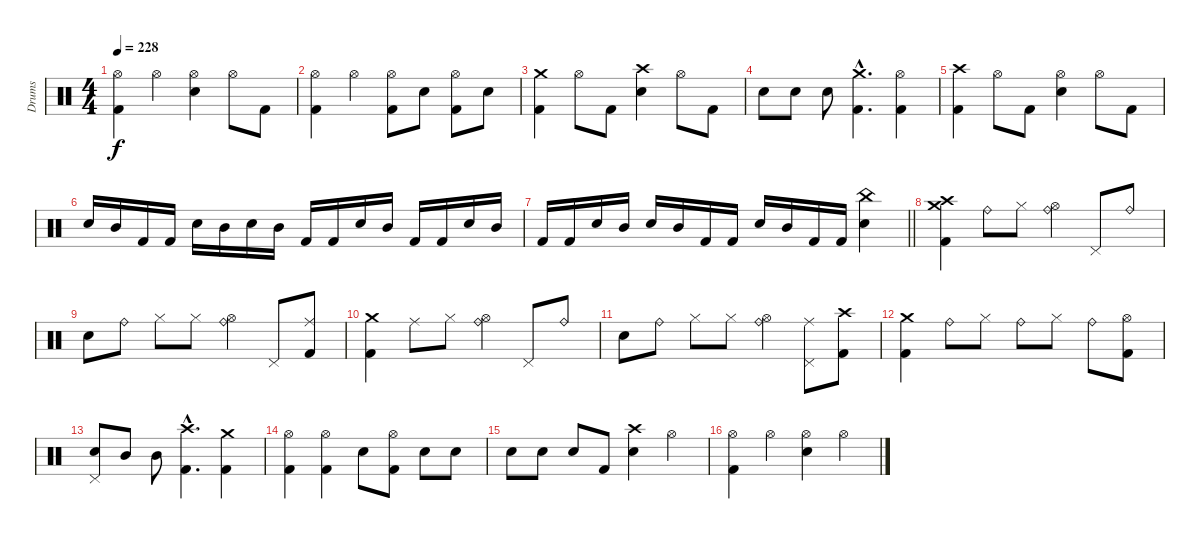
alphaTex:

\track ("Drums" "Drums") {instrument percussion}
\staff {score}
\articulation defaults
\ts (4 4)
\tempo 228
\clef neutral
\ks c
("Hi-Hat (open)" "Kick (hit) 2").4{dy f} "Hi-Hat (open)".4 ("Hi-Hat (open)" "Electric Snare (hit)").4 "Hi-Hat (open)".8 "Kick (hit) 2".8 |
("Hi-Hat (open)" "Kick (hit) 2").4 "Hi-Hat (open)".4 ("Hi-Hat (open)" "Kick (hit) 2").8 "Electric Snare (hit)".8 ("Hi-Hat (open)" "Kick (hit) 2").8 "Electric Snare (hit)".8 |
("Crash medium (hit)" "Kick (hit) 2").4 "Hi-Hat (open)".8 "Kick (hit) 2".8 ("Crash high (hit)" "Electric Snare (hit)").4 "Hi-Hat (open)".8 "Kick (hit) 2".8 |
"Electric Snare (hit)".8 "Electric Snare (hit)".8 "Electric Snare (hit)".8 ("Crash medium (hit)"{hac} "Kick (hit) 2"{hac}).4{d} ("Hi-Hat (open)" "Kick (hit) 2").4 |
("Crash high (hit)" "Kick (hit) 2").4 "Hi-Hat (open)".8 "Kick (hit) 2".8 ("Hi-Hat (open)" "Electric Snare (hit)").4 "Hi-Hat (open)".8 "Kick (hit) 2".8 |
"Electric Snare (hit)".16 "Mid Tom (hit)".16 "Kick (hit) 2".16 "Kick (hit) 2".16 "Electric Snare (hit)".16 "Mid Tom (hit)".16 "Electric Snare (hit)".16 "Mid Tom (hit)".16 "Kick (hit) 2".16 "Kick (hit) 2".16 "Electric Snare (hit)".16 "Mid Tom (hit)".16 "Kick (hit) 2".16 "Kick (hit) 2".16 "Electric Snare (hit)".16 "Mid Tom (hit)".16 |
\barLineRight lightlight "Kick (hit) 2".16 "Kick (hit) 2".16 "Electric Snare (hit)".16 "Mid Tom (hit)".16 "Electric Snare (hit)".16 "Mid Tom (hit)".16 "Kick (hit) 2".16 "Kick (hit) 2".16 "Electric Snare (hit)".16 "Mid Tom (hit)".16 "Kick (hit) 2".16 "Kick (hit) 2".16
("China (hit)" "Electric Snare (hit)").4 |
("Crash medium (hit)" "Crash high (hit)" "Kick (hit) 2").4 "Ride (bell)".8 "Hi-Hat (closed)".8 ("Ride (bell)" "Hi-Hat (open)").4 "Pedal Hi-Hat (hit)".8 "Ride (bell)".8 |
"Electric Snare (hit)".8 "Ride (bell)".8 "Hi-Hat (closed)".8 "Hi-Hat (closed)".8 ("Ride (bell)" "Hi-Hat (open)").4 "Pedal Hi-Hat (hit)".8 ("Ride (middle)" "Kick (hit) 2").8 |
("Crash medium (hit)" "Kick (hit) 2").4 "Ride (middle)".8 "Hi-Hat (closed)".8 ("Ride (bell)" "Hi-Hat (open)").4 "Pedal Hi-Hat (hit)".8 "Ride (bell)".8 |
"Electric Snare (hit)".8 "Ride (bell)".8 "Hi-Hat (closed)".8 "Hi-Hat (closed)".8 ("Ride (bell)" "Hi-Hat (open)").4 ("Ride (middle)" "Pedal Hi-Hat (hit)").8 ("Crash high (hit)" "Kick (hit) 2").8 |
("Crash medium (hit)" "Kick (hit) 2").4 "Ride (bell)".8 "Hi-Hat (closed)".8 "Ride (bell)".8 "Hi-Hat (closed)".8 "Ride (bell)".8 ("Hi-Hat (open)" "Kick (hit) 2").8 |
("Pedal Hi-Hat (hit)" "Electric Snare (hit)").8 "Mid Tom (hit)".8 "Mid Tom (hit)".8 ("Crash high (hit)"{hac} "Kick (hit) 2"{hac}).4{d} ("Crash medium (hit)" "Kick (hit) 2").4 |
("Hi-Hat (open)" "Kick (hit) 2").4 ("Hi-Hat (open)" "Kick (hit) 2").4 "Electric Snare (hit)".8 ("Hi-Hat (open)" "Kick (hit) 2").8 "Electric Snare (hit)".8 "Electric Snare (hit)".8 |
"Electric Snare (hit)".8 "Electric Snare (hit)".8 "Electric Snare (hit)".8 "Kick (hit) 2".8 ("Crash high (hit)" "Electric Snare (hit)").4 "Hi-Hat (open)".4 |
("Hi-Hat (open)" "Kick (hit) 2").4 "Hi-Hat (open)".4 ("Hi-Hat (open)" "Electric Snare (hit)").4 "Hi-Hat (open)".4
